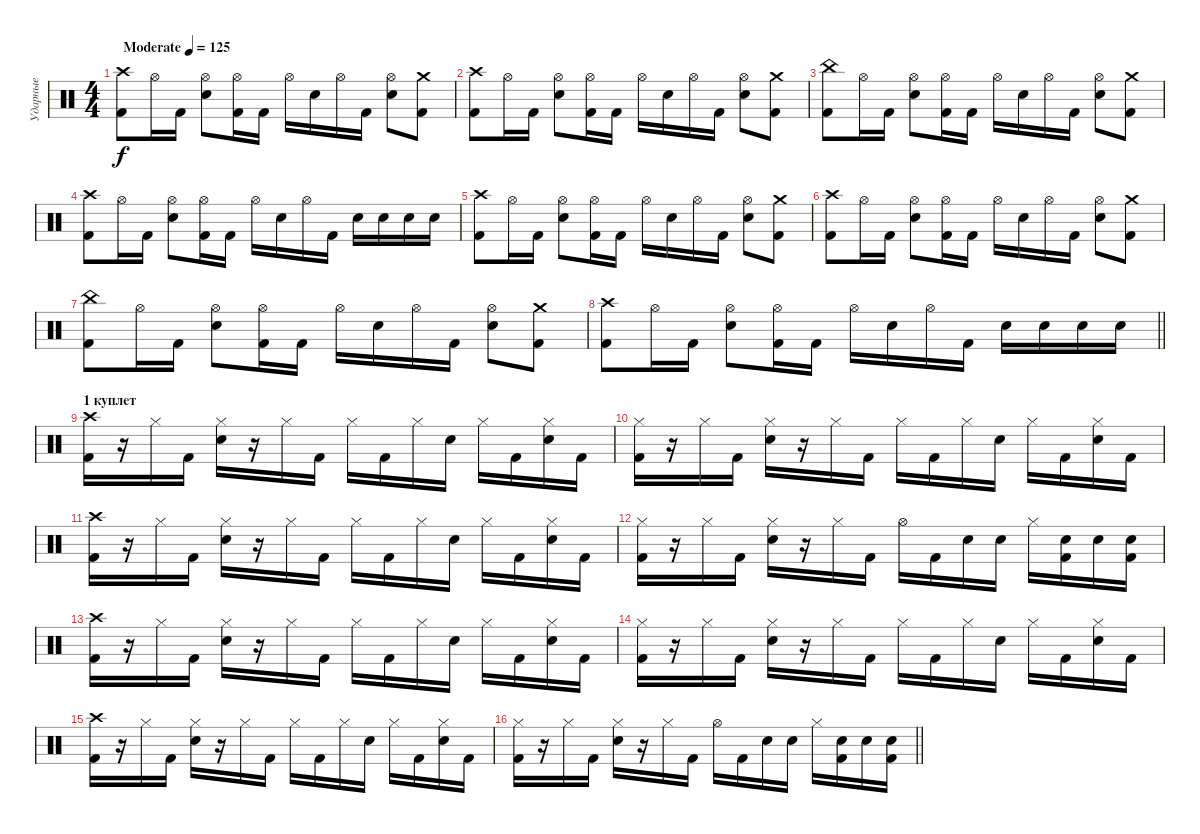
\track ("Ударные" "Ударные") {instrument percussion}
\staff {score}
\articulation defaults
\ts (4 4)
\tempo (125 "Moderate")
\clef neutral
\ks c
("Crash high (hit)" "Kick (hit) 2").8{dy f} "Hi-Hat (open)".16 "Kick (hit) 2".16 ("Hi-Hat (open)" "Electric Snare (hit)").8 ("Hi-Hat (open)" "Kick (hit) 2").16 "Kick (hit) 2".16 "Hi-Hat (open)".16 "Electric Snare (hit)".16 "Hi-Hat (open)".16 "Kick (hit) 2".16 ("Hi-Hat (open)" "Electric Snare (hit)").8 ("Crash medium (hit)" "Kick (hit) 2").8 |
("Crash high (hit)" "Kick (hit) 2").8 "Hi-Hat (open)".16 "Kick (hit) 2".16 ("Hi-Hat (open)" "Electric Snare (hit)").8 ("Hi-Hat (open)" "Kick (hit) 2").16 "Kick (hit) 2".16 "Hi-Hat (open)".16 "Electric Snare (hit)".16 "Hi-Hat (open)".16 "Kick (hit) 2".16 ("Hi-Hat (open)" "Electric Snare (hit)").8 ("Crash medium (hit)" "Kick (hit) 2").8 |
("China (hit)" "Kick (hit) 2").8 "Hi-Hat (open)".16 "Kick (hit) 2".16 ("Hi-Hat (open)" "Electric Snare (hit)").8 ("Hi-Hat (open)" "Kick (hit) 2").16 "Kick (hit) 2".16 "Hi-Hat (open)".16 "Electric Snare (hit)".16 "Hi-Hat (open)".16 "Kick (hit) 2".16 ("Hi-Hat (open)" "Electric Snare (hit)").8 ("Crash medium (hit)" "Kick (hit) 2").8 |
("Crash high (hit)" "Kick (hit) 2").8 "Hi-Hat (open)".16 "Kick (hit) 2".16 ("Hi-Hat (open)" "Electric Snare (hit)").8 ("Hi-Hat (open)" "Kick (hit) 2").16 "Kick (hit) 2".16 "Hi-Hat (open)".16 "Electric Snare (hit)".16 "Hi-Hat (open)".16 "Kick (hit) 2".16 "Electric Snare (hit)".16 "Electric Snare (hit)".16 "Electric Snare (hit)".16 "Electric Snare (hit)".16 |
("Crash high (hit)" "Kick (hit) 2").8 "Hi-Hat (open)".16 "Kick (hit) 2".16 ("Hi-Hat (open)" "Electric Snare (hit)").8 ("Hi-Hat (open)" "Kick (hit) 2").16 "Kick (hit) 2".16 "Hi-Hat (open)".16 "Electric Snare (hit)".16 "Hi-Hat (open)".16 "Kick (hit) 2".16 ("Hi-Hat (open)" "Electric Snare (hit)").8 ("Crash medium (hit)" "Kick (hit) 2").8 |
("Crash high (hit)" "Kick (hit) 2").8 "Hi-Hat (open)".16 "Kick (hit) 2".16 ("Hi-Hat (open)" "Electric Snare (hit)").8 ("Hi-Hat (open)" "Kick (hit) 2").16 "Kick (hit) 2".16 "Hi-Hat (open)".16 "Electric Snare (hit)".16 "Hi-Hat (open)".16 "Kick (hit) 2".16 ("Hi-Hat (open)" "Electric Snare (hit)").8 ("Crash medium (hit)" "Kick (hit) 2").8 |
("China (hit)" "Kick (hit) 2").8 "Hi-Hat (open)".16 "Kick (hit) 2".16 ("Hi-Hat (open)" "Electric Snare (hit)").8 ("Hi-Hat (open)" "Kick (hit) 2").16 "Kick (hit) 2".16 "Hi-Hat (open)".16 "Electric Snare (hit)".16 "Hi-Hat (open)".16 "Kick (hit) 2".16 ("Hi-Hat (open)" "Electric Snare (hit)").8 ("Crash medium (hit)" "Kick (hit) 2").8 |
\barLineRight lightlight
("Crash high (hit)" "Kick (hit) 2").8 "Hi-Hat (open)".16 "Kick (hit) 2".16 ("Hi-Hat (open)" "Electric Snare (hit)").8 ("Hi-Hat (open)" "Kick (hit) 2").16 "Kick (hit) 2".16 "Hi-Hat (open)".16 "Electric Snare (hit)".16 "Hi-Hat (open)".16 "Kick (hit) 2".16 "Electric Snare (hit)".16 "Electric Snare (hit)".16 "Electric Snare (hit)".16 "Electric Snare (hit)".16 |
\section ("" "1 куплет")
("Crash high (hit)" "Kick (hit) 2").16 r.16 "Hi-Hat (closed)".16 "Kick (hit) 2".16 ("Hi-Hat (closed)" "Electric Snare (hit)").16 r.16 "Hi-Hat (closed)".16 "Kick (hit) 2".16 "Hi-Hat (closed)".16 "Kick (hit) 2".16 "Hi-Hat (closed)".16 "Electric Snare (hit)".16 "Hi-Hat (closed)".16 "Kick (hit) 2".16 ("Hi-Hat (closed)" "Electric Snare (hit)").16 "Kick (hit) 2".16 |
("Hi-Hat (closed)" "Kick (hit) 2").16 r.16 "Hi-Hat (closed)".16 "Kick (hit) 2".16 ("Hi-Hat (closed)" "Electric Snare (hit)").16 r.16 "Hi-Hat (closed)".16 "Kick (hit) 2".16 "Hi-Hat (closed)".16 "Kick (hit) 2".16 "Hi-Hat (closed)".16 "Electric Snare (hit)".16 "Hi-Hat (closed)".16 "Kick (hit) 2".16 ("Hi-Hat (closed)" "Electric Snare (hit)").16 "Kick (hit) 2".16 |
("Crash high (hit)" "Kick (hit) 2").16 r.16 "Hi-Hat (closed)".16 "Kick (hit) 2".16 ("Hi-Hat (closed)" "Electric Snare (hit)").16 r.16 "Hi-Hat (closed)".16 "Kick (hit) 2".16 "Hi-Hat (closed)".16 "Kick (hit) 2".16 "Hi-Hat (closed)".16 "Electric Snare (hit)".16 "Hi-Hat (closed)".16 "Kick (hit) 2".16 ("Hi-Hat (closed)" "Electric Snare (hit)").16 "Kick (hit) 2".16 |
("Hi-Hat (closed)" "Kick (hit) 2").16 r.16 "Hi-Hat (closed)".16 "Kick (hit) 2".16 ("Hi-Hat (closed)" "Electric Snare (hit)").16 r.16 "Hi-Hat (closed)".16 "Kick (hit) 2".16 "Hi-Hat (open)".16 "Kick (hit) 2".16 "Electric Snare (hit)".16 "Electric Snare (hit)".16 "Hi-Hat (closed)".16 ("Electric Snare (hit)" "Kick (hit) 2").16 "Electric Snare (hit)".16 ("Electric Snare (hit)" "Kick (hit) 2").16 |
("Crash high (hit)" "Kick (hit) 2").16 r.16 "Hi-Hat (closed)".16 "Kick (hit) 2".16 ("Hi-Hat (closed)" "Electric Snare (hit)").16 r.16 "Hi-Hat (closed)".16 "Kick (hit) 2".16 "Hi-Hat (closed)".16 "Kick (hit) 2".16 "Hi-Hat (closed)".16 "Electric Snare (hit)".16 "Hi-Hat (closed)".16 "Kick (hit) 2".16 ("Hi-Hat (closed)" "Electric Snare (hit)").16 "Kick (hit) 2".16 |
("Hi-Hat (closed)" "Kick (hit) 2").16 r.16 "Hi-Hat (closed)".16 "Kick (hit) 2".16 ("Hi-Hat (closed)" "Electric Snare (hit)").16 r.16 "Hi-Hat (closed)".16 "Kick (hit) 2".16 "Hi-Hat (closed)".16 "Kick (hit) 2".16 "Hi-Hat (closed)".16 "Electric Snare (hit)".16 "Hi-Hat (closed)".16 "Kick (hit) 2".16 ("Hi-Hat (closed)" "Electric Snare (hit)").16 "Kick (hit) 2".16 |
("Crash high (hit)" "Kick (hit) 2").16 r.16 "Hi-Hat (closed)".16 "Kick (hit) 2".16 ("Hi-Hat (closed)" "Electric Snare (hit)").16 r.16 "Hi-Hat (closed)".16 "Kick (hit) 2".16 "Hi-Hat (closed)".16 "Kick (hit) 2".16 "Hi-Hat (closed)".16 "Electric Snare (hit)".16 "Hi-Hat (closed)".16 "Kick (hit) 2".16 ("Hi-Hat (closed)" "Electric Snare (hit)").16 "Kick (hit) 2".16 |
\barLineRight lightlight
("Hi-Hat (closed)" "Kick (hit) 2").16 r.16 "Hi-Hat (closed)".16 "Kick (hit) 2".16 ("Hi-Hat (closed)" "Electric Snare (hit)").16 r.16 "Hi-Hat (closed)".16 "Kick (hit) 2".16 "Hi-Hat (open)".16 "Kick (hit) 2".16 "Electric Snare (hit)".16 "Electric Snare (hit)".16 "Hi-Hat (closed)".16 ("Electric Snare (hit)" "Kick (hit) 2").16 "Electric Snare (hit)".16 ("Electric Snare (hit)" "Kick (hit) 2").16
